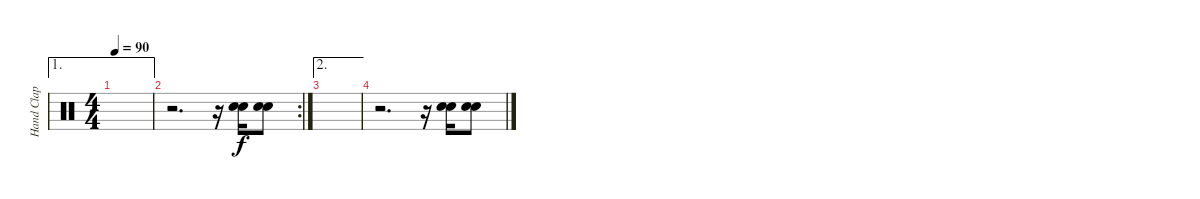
\track ("Hand Clap" "Hand Clap") {instrument percussion}
\staff {score}
\articulation defaults
\ae 1
\ts (4 4)
\tempo 90
\clef neutral
\ks c
|
\rc 2
r.2{d} r.16 ("Hand Clap (hit)" "Hand Clap (hit)").16 ("Hand Clap (hit)" "Hand Clap (hit)").8 |
\ae 2
|
r.2{d} r.16 ("Hand Clap (hit)" "Hand Clap (hit)").16 ("Hand Clap (hit)" "Hand Clap (hit)").8
